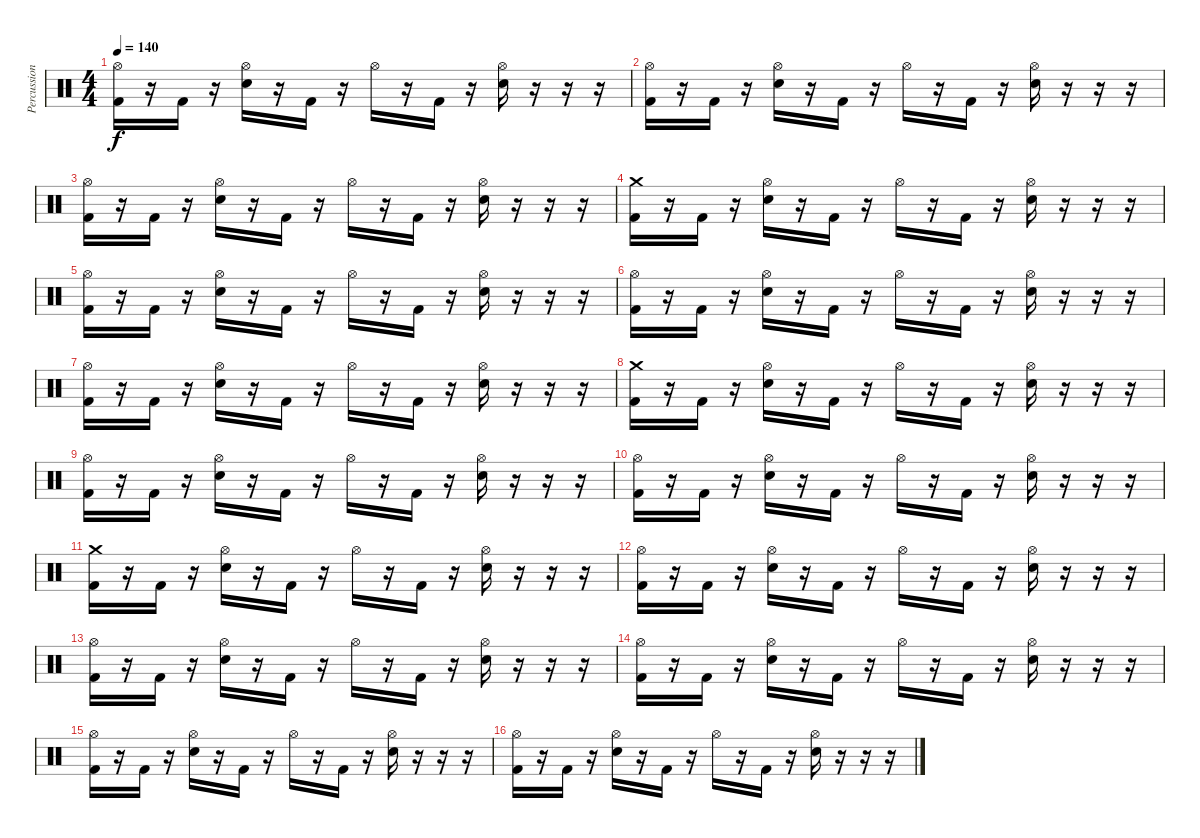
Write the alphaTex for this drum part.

\track ("Percussion" "Percussion") {instrument percussion}
\staff {score}
\articulation defaults
\ts (4 4)
\tempo 140
\clef neutral
\ks c
("Hi-Hat (open)" "Kick (hit) 2").16{dy f} r.16 "Kick (hit) 2".16 r.16 ("Hi-Hat (open)" "Snare (hit) 2").16 r.16 "Kick (hit) 2".16 r.16 "Hi-Hat (open)".16 r.16 "Kick (hit) 2".16 r.16 ("Hi-Hat (open)" "Snare (hit) 2").16 r.16 r.16 r.16 |
("Hi-Hat (open)" "Kick (hit) 2").16 r.16 "Kick (hit) 2".16 r.16 ("Hi-Hat (open)" "Snare (hit) 2").16 r.16 "Kick (hit) 2".16 r.16 "Hi-Hat (open)".16 r.16 "Kick (hit) 2".16 r.16 ("Hi-Hat (open)" "Snare (hit) 2").16 r.16 r.16 r.16 |
("Hi-Hat (open)" "Kick (hit) 2").16 r.16 "Kick (hit) 2".16 r.16 ("Hi-Hat (open)" "Snare (hit) 2").16 r.16 "Kick (hit) 2".16 r.16 "Hi-Hat (open)".16 r.16 "Kick (hit) 2".16 r.16 ("Hi-Hat (open)" "Snare (hit) 2").16 r.16 r.16 r.16 |
("Crash medium (hit)" "Kick (hit) 2").16 r.16 "Kick (hit) 2".16 r.16 ("Hi-Hat (open)" "Snare (hit) 2").16 r.16 "Kick (hit) 2".16 r.16 "Hi-Hat (open)".16 r.16 "Kick (hit) 2".16 r.16 ("Hi-Hat (open)" "Snare (hit) 2").16 r.16 r.16 r.16 |
("Hi-Hat (open)" "Kick (hit) 2").16 r.16 "Kick (hit) 2".16 r.16 ("Hi-Hat (open)" "Snare (hit) 2").16 r.16 "Kick (hit) 2".16 r.16 "Hi-Hat (open)".16 r.16 "Kick (hit) 2".16 r.16 ("Hi-Hat (open)" "Snare (hit) 2").16 r.16 r.16 r.16 |
("Hi-Hat (open)" "Kick (hit) 2").16 r.16 "Kick (hit) 2".16 r.16 ("Hi-Hat (open)" "Snare (hit) 2").16 r.16 "Kick (hit) 2".16 r.16 "Hi-Hat (open)".16 r.16 "Kick (hit) 2".16 r.16 ("Hi-Hat (open)" "Snare (hit) 2").16 r.16 r.16 r.16 |
("Hi-Hat (open)" "Kick (hit) 2").16 r.16 "Kick (hit) 2".16 r.16 ("Hi-Hat (open)" "Snare (hit) 2").16 r.16 "Kick (hit) 2".16 r.16 "Hi-Hat (open)".16 r.16 "Kick (hit) 2".16 r.16 ("Hi-Hat (open)" "Snare (hit) 2").16 r.16 r.16 r.16 |
("Crash medium (hit)" "Kick (hit) 2").16 r.16 "Kick (hit) 2".16 r.16 ("Hi-Hat (open)" "Snare (hit) 2").16 r.16 "Kick (hit) 2".16 r.16 "Hi-Hat (open)".16 r.16 "Kick (hit) 2".16 r.16 ("Hi-Hat (open)" "Snare (hit) 2").16 r.16 r.16 r.16 |
("Hi-Hat (open)" "Kick (hit) 2").16 r.16 "Kick (hit) 2".16 r.16 ("Hi-Hat (open)" "Snare (hit) 2").16 r.16 "Kick (hit) 2".16 r.16 "Hi-Hat (open)".16 r.16 "Kick (hit) 2".16 r.16 ("Hi-Hat (open)" "Snare (hit) 2").16 r.16 r.16 r.16 |
("Hi-Hat (open)" "Kick (hit) 2").16 r.16 "Kick (hit) 2".16 r.16 ("Hi-Hat (open)" "Snare (hit) 2").16 r.16 "Kick (hit) 2".16 r.16 "Hi-Hat (open)".16 r.16 "Kick (hit) 2".16 r.16 ("Hi-Hat (open)" "Snare (hit) 2").16 r.16 r.16 r.16 |
("Crash medium (hit)" "Kick (hit) 2").16 r.16 "Kick (hit) 2".16 r.16 ("Hi-Hat (open)" "Snare (hit) 2").16 r.16 "Kick (hit) 2".16 r.16 "Hi-Hat (open)".16 r.16 "Kick (hit) 2".16 r.16 ("Hi-Hat (open)" "Snare (hit) 2").16 r.16 r.16 r.16 |
("Hi-Hat (open)" "Kick (hit) 2").16 r.16 "Kick (hit) 2".16 r.16 ("Hi-Hat (open)" "Snare (hit) 2").16 r.16 "Kick (hit) 2".16 r.16 "Hi-Hat (open)".16 r.16 "Kick (hit) 2".16 r.16 ("Hi-Hat (open)" "Snare (hit) 2").16 r.16 r.16 r.16 |
("Hi-Hat (open)" "Kick (hit) 2").16 r.16 "Kick (hit) 2".16 r.16 ("Hi-Hat (open)" "Snare (hit) 2").16 r.16 "Kick (hit) 2".16 r.16 "Hi-Hat (open)".16 r.16 "Kick (hit) 2".16 r.16 ("Hi-Hat (open)" "Snare (hit) 2").16 r.16 r.16 r.16 |
("Hi-Hat (open)" "Kick (hit) 2").16 r.16 "Kick (hit) 2".16 r.16 ("Hi-Hat (open)" "Snare (hit) 2").16 r.16 "Kick (hit) 2".16 r.16 "Hi-Hat (open)".16 r.16 "Kick (hit) 2".16 r.16 ("Hi-Hat (open)" "Snare (hit) 2").16 r.16 r.16 r.16 |
("Hi-Hat (open)" "Kick (hit) 2").16 r.16 "Kick (hit) 2".16 r.16 ("Hi-Hat (open)" "Snare (hit) 2").16 r.16 "Kick (hit) 2".16 r.16 "Hi-Hat (open)".16 r.16 "Kick (hit) 2".16 r.16 ("Hi-Hat (open)" "Snare (hit) 2").16 r.16 r.16 r.16 |
("Hi-Hat (open)" "Kick (hit) 2").16 r.16 "Kick (hit) 2".16 r.16 ("Hi-Hat (open)" "Snare (hit) 2").16 r.16 "Kick (hit) 2".16 r.16 "Hi-Hat (open)".16 r.16 "Kick (hit) 2".16 r.16 ("Hi-Hat (open)" "Snare (hit) 2").16 r.16 r.16 r.16
